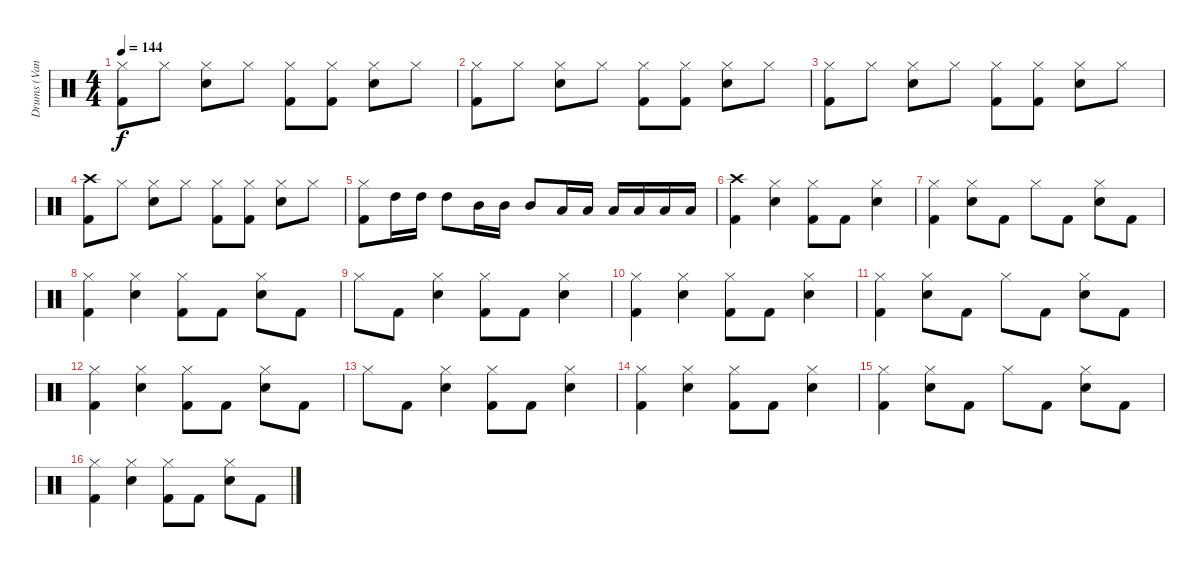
\track ("Drums (Vandel)" "Drums (Van") {instrument percussion}
\staff {score}
\articulation defaults
\ts (4 4)
\tempo 144
\clef neutral
\ks c
("Hi-Hat (closed)" "Kick (hit) 2").8{dy f} "Hi-Hat (closed)".8 ("Hi-Hat (closed)" "Snare (hit) 2").8 "Hi-Hat (closed)".8 ("Hi-Hat (closed)" "Kick (hit) 2").8 ("Hi-Hat (closed)" "Kick (hit) 2").8 ("Hi-Hat (closed)" "Snare (hit) 2").8 "Hi-Hat (closed)".8 |
("Hi-Hat (closed)" "Kick (hit) 2").8 "Hi-Hat (closed)".8 ("Hi-Hat (closed)" "Snare (hit) 2").8 "Hi-Hat (closed)".8 ("Hi-Hat (closed)" "Kick (hit) 2").8 ("Hi-Hat (closed)" "Kick (hit) 2").8 ("Hi-Hat (closed)" "Snare (hit) 2").8 "Hi-Hat (closed)".8 |
("Hi-Hat (closed)" "Kick (hit) 2").8 "Hi-Hat (closed)".8 ("Hi-Hat (closed)" "Snare (hit) 2").8 "Hi-Hat (closed)".8 ("Hi-Hat (closed)" "Kick (hit) 2").8 ("Hi-Hat (closed)" "Kick (hit) 2").8 ("Hi-Hat (closed)" "Snare (hit) 2").8 "Hi-Hat (closed)".8 |
("Crash high (hit)" "Kick (hit) 2").8 "Hi-Hat (closed)".8 ("Hi-Hat (closed)" "Snare (hit) 2").8 "Hi-Hat (closed)".8 ("Hi-Hat (closed)" "Kick (hit) 2").8 ("Hi-Hat (closed)" "Kick (hit) 2").8 ("Hi-Hat (closed)" "Snare (hit) 2").8 "Hi-Hat (closed)".8 |
("Hi-Hat (closed)" "Kick (hit) 2").8 "High Tom (hit)".16 "High Tom (hit)".16 "High Tom (hit)".8 "Mid Tom (hit)".16 "Mid Tom (hit)".16 "Mid Tom (hit)".8 "Low Tom (hit)".16 "Low Tom (hit)".16 "Low Tom (hit)".16 "Low Tom (hit)".16 "Low Floor Tom (hit)".16 "Low Floor Tom (hit)".16 |
("Crash high (hit)" "Kick (hit) 2").4 ("Hi-Hat (closed)" "Snare (hit) 2").4 ("Hi-Hat (closed)" "Kick (hit) 2").8 "Kick (hit) 2".8 ("Hi-Hat (closed)" "Snare (hit) 2").4 |
("Hi-Hat (closed)" "Kick (hit) 2").4 ("Hi-Hat (closed)" "Snare (hit) 2").8 "Kick (hit) 2".8 "Hi-Hat (closed)".8 "Kick (hit) 2".8 ("Hi-Hat (closed)" "Snare (hit) 2").8 "Kick (hit) 2".8 |
("Hi-Hat (closed)" "Kick (hit) 2").4 ("Hi-Hat (closed)" "Snare (hit) 2").4 ("Hi-Hat (closed)" "Kick (hit) 2").8 "Kick (hit) 2".8 ("Hi-Hat (closed)" "Snare (hit) 2").8 "Kick (hit) 2".8 |
"Hi-Hat (closed)".8 "Kick (hit) 2".8 ("Hi-Hat (closed)" "Snare (hit) 2").4 ("Hi-Hat (closed)" "Kick (hit) 2").8 "Kick (hit) 2".8 ("Hi-Hat (closed)" "Snare (hit) 2").4 |
("Hi-Hat (closed)" "Kick (hit) 2").4 ("Hi-Hat (closed)" "Snare (hit) 2").4 ("Hi-Hat (closed)" "Kick (hit) 2").8 "Kick (hit) 2".8 ("Hi-Hat (closed)" "Snare (hit) 2").4 |
("Hi-Hat (closed)" "Kick (hit) 2").4 ("Hi-Hat (closed)" "Snare (hit) 2").8 "Kick (hit) 2".8 "Hi-Hat (closed)".8 "Kick (hit) 2".8 ("Hi-Hat (closed)" "Snare (hit) 2").8 "Kick (hit) 2".8 |
("Hi-Hat (closed)" "Kick (hit) 2").4 ("Hi-Hat (closed)" "Snare (hit) 2").4 ("Hi-Hat (closed)" "Kick (hit) 2").8 "Kick (hit) 2".8 ("Hi-Hat (closed)" "Snare (hit) 2").8 "Kick (hit) 2".8 |
"Hi-Hat (closed)".8 "Kick (hit) 2".8 ("Hi-Hat (closed)" "Snare (hit) 2").4 ("Hi-Hat (closed)" "Kick (hit) 2").8 "Kick (hit) 2".8 ("Hi-Hat (closed)" "Snare (hit) 2").4 |
("Hi-Hat (closed)" "Kick (hit) 2").4 ("Hi-Hat (closed)" "Snare (hit) 2").4 ("Hi-Hat (closed)" "Kick (hit) 2").8 "Kick (hit) 2".8 ("Hi-Hat (closed)" "Snare (hit) 2").4 |
("Hi-Hat (closed)" "Kick (hit) 2").4 ("Hi-Hat (closed)" "Snare (hit) 2").8 "Kick (hit) 2".8 "Hi-Hat (closed)".8 "Kick (hit) 2".8 ("Hi-Hat (closed)" "Snare (hit) 2").8 "Kick (hit) 2".8 |
("Hi-Hat (closed)" "Kick (hit) 2").4 ("Hi-Hat (closed)" "Snare (hit) 2").4 ("Hi-Hat (closed)" "Kick (hit) 2").8 "Kick (hit) 2".8 ("Hi-Hat (closed)" "Snare (hit) 2").8 "Kick (hit) 2".8
